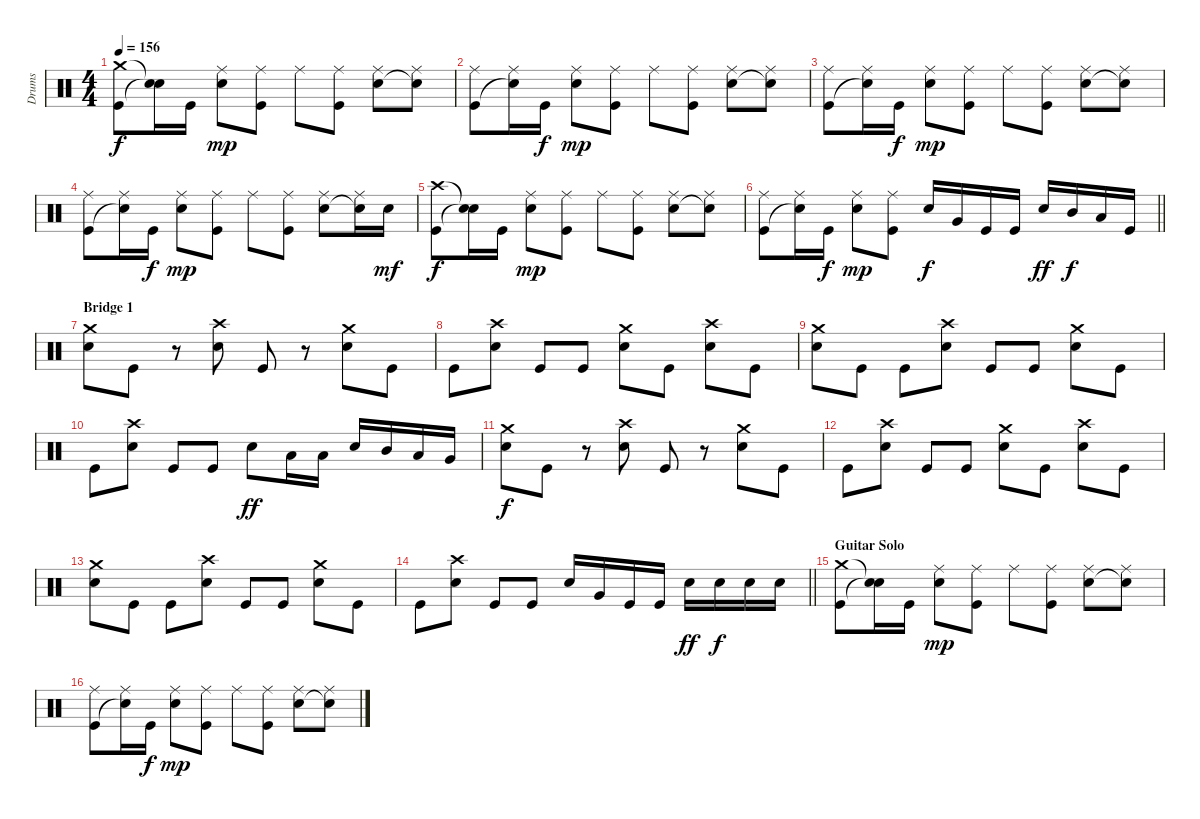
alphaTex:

\track ("Drums" "Drums") {instrument percussion}
\staff {score}
\articulation defaults
\ts (4 4)
\tempo 156
\clef neutral
\ks c
("Crash medium (hit)" "Kick (hit)").8{dy f} ("Snare (hit)"{t} "Snare (hit)"{t}).16 "Kick (hit)".16 ("Ride (middle)" "Snare (hit) 2").8{dy mp} ("Ride (middle)" "Kick (hit)").8 "Ride (middle)".8 ("Ride (middle)" "Kick (hit)").8 ("Ride (middle)" "Snare (hit) 2").8 ("Ride (middle)" "Snare (hit)"{t}).8 |
("Ride (middle)" "Kick (hit)").8 ("Ride (middle)" "Snare (hit)"{t}).16 "Kick (hit)".16{dy f} ("Ride (middle)" "Snare (hit) 2").8{dy mp} ("Ride (middle)" "Kick (hit)").8 "Ride (middle)".8 ("Ride (middle)" "Kick (hit)").8 ("Ride (middle)" "Snare (hit) 2").8 ("Ride (middle)" "Snare (hit)"{t}).8 |
("Ride (middle)" "Kick (hit)").8 ("Ride (middle)" "Snare (hit)"{t}).16 "Kick (hit)".16{dy f} ("Ride (middle)" "Snare (hit) 2").8{dy mp} ("Ride (middle)" "Kick (hit)").8 "Ride (middle)".8 ("Ride (middle)" "Kick (hit)").8 ("Ride (middle)" "Snare (hit) 2").8 ("Ride (middle)" "Snare (hit)"{t}).8 |
("Ride (middle)" "Kick (hit)").8 ("Ride (middle)" "Snare (hit)"{t}).16 "Kick (hit)".16{dy f} ("Ride (middle)" "Snare (hit) 2").8{dy mp} ("Ride (middle)" "Kick (hit)").8 "Ride (middle)".8 ("Ride (middle)" "Kick (hit)").8 ("Ride (middle)" "Snare (hit) 2").8 ("Ride (middle)" "Snare (hit)"{t}).16 "Snare (hit) 2".16{dy mf} |
("Crash high (hit)" "Kick (hit)").8{dy f} ("Snare (hit)"{t} "Snare (hit)"{t}).16 "Kick (hit)".16 ("Ride (middle)" "Snare (hit) 2").8{dy mp} ("Ride (middle)" "Kick (hit)").8 "Ride (middle)".8 ("Ride (middle)" "Kick (hit)").8 ("Ride (middle)" "Snare (hit) 2").8 ("Ride (middle)" "Snare (hit)"{t}).8 |
\barLineRight lightlight
("Ride (middle)" "Kick (hit)").8 ("Ride (middle)" "Snare (hit)"{t}).16 "Kick (hit)".16{dy f} ("Ride (middle)" "Snare (hit) 2").8{dy mp} ("Ride (middle)" "Kick (hit)").8 "Snare (hit) 2".16{dy f} "Very Low Tom (hit)".16 "Kick (hit)".16 "Kick (hit)".16 "Snare (hit) 2".16{dy ff} "Mid Tom (hit)".16{dy f} "Low Floor Tom (hit)".16 "Kick (hit)".16 |
\section ("" "Bridge 1")
("Crash medium (hit)" "Snare (hit) 2").8 "Kick (hit)".8 r.8 ("Crash high (hit)" "Snare (hit) 2").8 "Kick (hit)".8 r.8 ("Crash medium (hit)" "Snare (hit) 2").8 "Kick (hit)".8 |
"Kick (hit)".8 ("Crash high (hit)" "Snare (hit) 2").8 "Kick (hit)".8 "Kick (hit)".8 ("Crash medium (hit)" "Snare (hit) 2").8 "Kick (hit)".8 ("Crash high (hit)" "Snare (hit) 2").8 "Kick (hit)".8 |
("Crash medium (hit)" "Snare (hit) 2").8 "Kick (hit)".8 "Kick (hit)".8 ("Crash high (hit)" "Snare (hit) 2").8 "Kick (hit)".8 "Kick (hit)".8 ("Crash medium (hit)" "Snare (hit) 2").8 "Kick (hit)".8 |
"Kick (hit)".8 ("Crash high (hit)" "Snare (hit) 2").8 "Kick (hit)".8 "Kick (hit)".8 "Snare (hit) 2".8{dy ff} "Low Floor Tom (hit)".16 "Low Floor Tom (hit)".16 "Snare (hit) 2".16 "Mid Tom (hit)".16 "Low Floor Tom (hit)".16 "Very Low Tom (hit)".16 |
("Crash medium (hit)" "Snare (hit) 2").8{dy f} "Kick (hit)".8 r.8 ("Crash high (hit)" "Snare (hit) 2").8 "Kick (hit)".8 r.8 ("Crash medium (hit)" "Snare (hit) 2").8 "Kick (hit)".8 |
"Kick (hit)".8 ("Crash high (hit)" "Snare (hit) 2").8 "Kick (hit)".8 "Kick (hit)".8 ("Crash medium (hit)" "Snare (hit) 2").8 "Kick (hit)".8 ("Crash high (hit)" "Snare (hit) 2").8 "Kick (hit)".8 |
("Crash medium (hit)" "Snare (hit) 2").8 "Kick (hit)".8 "Kick (hit)".8 ("Crash high (hit)" "Snare (hit) 2").8 "Kick (hit)".8 "Kick (hit)".8 ("Crash medium (hit)" "Snare (hit) 2").8 "Kick (hit)".8 |
\barLineRight lightlight "Kick (hit)".8
("Crash high (hit)" "Snare (hit) 2").8 "Kick (hit)".8 "Kick (hit)".8 "Snare (hit) 2".16 "Very Low Tom (hit)".16 "Kick (hit)".16 "Kick (hit)".16 "Snare (hit) 2".16{dy ff} "Snare (hit) 2".16{dy f} "Snare (hit) 2".16 "Snare (hit) 2".16 |
\section ("" "Guitar Solo")
("Crash medium (hit)" "Kick (hit)").8 ("Snare (hit)"{t} "Snare (hit)"{t}).16 "Kick (hit)".16 ("Ride (middle)" "Snare (hit) 2").8{dy mp} ("Ride (middle)" "Kick (hit)").8 "Ride (middle)".8 ("Ride (middle)" "Kick (hit)").8 ("Ride (middle)" "Snare (hit) 2").8 ("Ride (middle)" "Snare (hit)"{t}).8 |
("Ride (middle)" "Kick (hit)").8 ("Ride (middle)" "Snare (hit)"{t}).16 "Kick (hit)".16{dy f} ("Ride (middle)" "Snare (hit) 2").8{dy mp} ("Ride (middle)" "Kick (hit)").8 "Ride (middle)".8 ("Ride (middle)" "Kick (hit)").8 ("Ride (middle)" "Snare (hit) 2").8 ("Ride (middle)" "Snare (hit)"{t}).8
